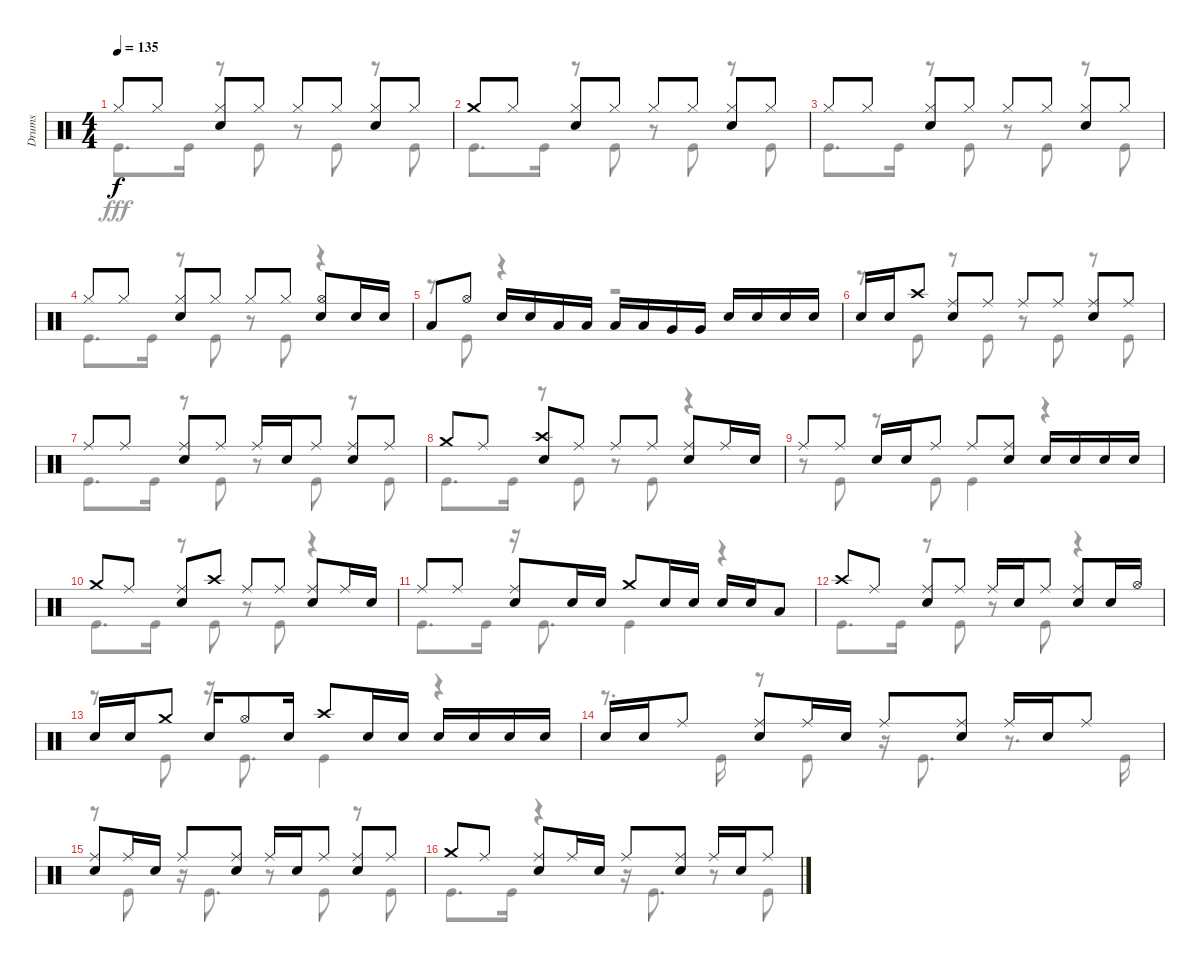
\track ("Drums" "Drums") {instrument percussion}
\staff {score}
\articulation defaults
\voice
\ts (4 4)
\tempo 135
\clef neutral
\ks c "Hi-Hat (closed)".8{dy f} "Hi-Hat (closed)".8
("Hi-Hat (closed)" "Snare (hit) 2").8 "Hi-Hat (closed)".8 "Hi-Hat (closed)".8 "Hi-Hat (closed)".8 ("Hi-Hat (closed)" "Snare (hit) 2").8 "Hi-Hat (closed)".8 |
"Crash medium (hit)".8 "Hi-Hat (closed)".8 ("Hi-Hat (closed)" "Snare (hit) 2").8 "Hi-Hat (closed)".8 "Hi-Hat (closed)".8 "Hi-Hat (closed)".8 ("Hi-Hat (closed)" "Snare (hit) 2").8 "Hi-Hat (closed)".8 |
"Hi-Hat (closed)".8 "Hi-Hat (closed)".8 ("Hi-Hat (closed)" "Snare (hit) 2").8 "Hi-Hat (closed)".8 "Hi-Hat (closed)".8 "Hi-Hat (closed)".8 ("Hi-Hat (closed)" "Snare (hit) 2").8 "Hi-Hat (closed)".8 |
"Hi-Hat (closed)".8 "Hi-Hat (closed)".8 ("Hi-Hat (closed)" "Snare (hit) 2").8 "Hi-Hat (closed)".8 "Hi-Hat (closed)".8 "Hi-Hat (closed)".8 ("Hi-Hat (open)" "Snare (hit) 2").8 "Snare (hit) 2".16 "Snare (hit) 2".16 |
"Low Tom (hit)".8 "Hi-Hat (open)".8 "Snare (hit) 2".16 "Snare (hit) 2".16 "Low Tom (hit)".16 "Low Tom (hit)".16 "Low Tom (hit)".16 "Low Tom (hit)".16 "Very Low Tom (hit)".16 "Very Low Tom (hit)".16 "Snare (hit) 2".16 "Snare (hit) 2".16 "Snare (hit) 2".16 "Snare (hit) 2".16 |
"Snare (hit) 2".16 "Snare (hit) 2".16 "Crash high (hit)".8 ("Ride (middle)" "Snare (hit) 2").8 "Ride (middle)".8 "Ride (middle)".8 "Ride (middle)".8 ("Ride (middle)" "Snare (hit) 2").8 "Ride (middle)".8 |
"Ride (middle)".8 "Ride (middle)".8 ("Ride (middle)" "Snare (hit) 2").8 "Ride (middle)".8 "Ride (middle)".16 "Snare (hit) 2".16 "Ride (middle)".8 ("Ride (middle)" "Snare (hit) 2").8 "Ride (middle)".8 |
"Crash medium (hit)".8 "Ride (middle)".8 ("Crash high (hit)" "Snare (hit) 2").8 "Ride (middle)".8 "Ride (middle)".8 "Ride (middle)".8 ("Ride (middle)" "Snare (hit) 2").8 "Ride (middle)".16 "Snare (hit) 2".16 |
"Ride (middle)".8 "Ride (middle)".8 "Snare (hit) 2".16 "Snare (hit) 2".16 "Ride (middle)".8 "Ride (middle)".8 ("Ride (middle)" "Snare (hit) 2").8 "Snare (hit) 2".16 "Snare (hit) 2".16 "Snare (hit) 2".16 "Snare (hit) 2".16 |
"Crash medium (hit)".8 "Ride (middle)".8 ("Ride (middle)" "Snare (hit) 2").8 "Crash high (hit)".8 "Ride (middle)".8 "Ride (middle)".8 ("Ride (middle)" "Snare (hit) 2").8 "Ride (middle)".16 "Snare (hit) 2".16 |
"Ride (middle)".8 "Ride (middle)".8 ("Ride (middle)" "Snare (hit) 2").8 "Snare (hit) 2".16 "Snare (hit) 2".16 "Crash medium (hit)".8 "Snare (hit) 2".16 "Snare (hit) 2".16 "Snare (hit) 2".16 "Snare (hit) 2".16 "Low Tom (hit)".8 |
"Crash high (hit)".8 "Ride (middle)".8 ("Ride (middle)" "Snare (hit) 2").8 "Ride (middle)".8 "Ride (middle)".16 "Snare (hit) 2".16 "Ride (middle)".8 ("Ride (middle)" "Snare (hit) 2").8 "Snare (hit) 2".16 "Hi-Hat (open)".16 |
"Snare (hit) 2".16 "Snare (hit) 2".16 "Crash medium (hit)".8 "Snare (hit) 2".16 "Hi-Hat (open)".8 "Snare (hit) 2".16 "Crash high (hit)".8 "Snare (hit) 2".16 "Snare (hit) 2".16 "Snare (hit) 2".16 "Snare (hit) 2".16 "Snare (hit) 2".16 "Snare (hit) 2".16 |
"Snare (hit) 2".16 "Snare (hit) 2".16 "Ride (middle)".8 ("Ride (middle)" "Snare (hit) 2").8 "Ride (middle)".16 "Snare (hit) 2".16 "Ride (middle)".8 ("Ride (middle)" "Snare (hit) 2").8 "Ride (middle)".16 "Snare (hit) 2".16 "Ride (middle)".8 |
("Ride (middle)" "Snare (hit) 2").8 "Ride (middle)".16 "Snare (hit) 2".16 "Ride (middle)".8 ("Ride (middle)" "Snare (hit) 2").8 "Ride (middle)".16 "Snare (hit) 2".16 "Ride (middle)".8 ("Ride (middle)" "Snare (hit) 2").8 "Ride (middle)".8 |
"Crash medium (hit)".8 "Ride (middle)".8 ("Ride (middle)" "Snare (hit) 2").8 "Ride (middle)".16 "Snare (hit) 2".16 "Ride (middle)".8 ("Ride (middle)" "Snare (hit) 2").8 "Ride (middle)".16 "Snare (hit) 2".16 "Ride (middle)".8
\voice
\clef neutral
\ottava regular
\simile none
\ks c "Kick (hit)".8{d dy fff} "Kick (hit)".16
r.8 "Kick (hit)".8 r.8 "Kick (hit)".8 r.8 "Kick (hit)".8 |
"Kick (hit)".8{d} "Kick (hit)".16 r.8 "Kick (hit)".8 r.8 "Kick (hit)".8 r.8 "Kick (hit)".8 |
"Kick (hit)".8{d} "Kick (hit)".16 r.8 "Kick (hit)".8 r.8 "Kick (hit)".8 r.8 "Kick (hit)".8 |
"Kick (hit)".8{d} "Kick (hit)".16 r.8 "Kick (hit)".8 r.8 "Kick (hit)".8 r.4 |
r.8 "Kick (hit)".8 r.4 r.2 |
r.8 "Kick (hit)".8 r.8 "Kick (hit)".8 r.8 "Kick (hit)".8 r.8 "Kick (hit)".8 |
"Kick (hit)".8{d} "Kick (hit)".16 r.8 "Kick (hit)".8 r.8 "Kick (hit)".8 r.8 "Kick (hit)".8 |
"Kick (hit)".8{d} "Kick (hit)".16 r.8 "Kick (hit)".8 r.8 "Kick (hit)".8 r.4 |
r.8 "Kick (hit)".8 r.8 "Kick (hit)".8 "Kick (hit)".4 r.4 |
"Kick (hit)".8{d} "Kick (hit)".16 r.8 "Kick (hit)".8 r.8 "Kick (hit)".8 r.4 |
"Kick (hit)".8{d} "Kick (hit)".16 r.16 "Kick (hit)".8{d} "Kick (hit)".4 r.4 |
"Kick (hit)".8{d} "Kick (hit)".16 r.8 "Kick (hit)".8 r.8 "Kick (hit)".8 r.4 |
r.8 "Kick (hit)".8 r.16 "Kick (hit)".8{d} "Kick (hit)".4 r.4 |
r.8{d} "Kick (hit)".16 r.8 "Kick (hit)".8 r.16 "Kick (hit)".8{d} r.8{d} "Kick (hit)".16 |
r.8 "Kick (hit)".8 r.16 "Kick (hit)".8{d} r.8 "Kick (hit)".8 r.8 "Kick (hit)".8 |
"Kick (hit)".8{d} "Kick (hit)".16 r.4 r.16 "Kick (hit)".8{d} r.8 "Kick (hit)".8
